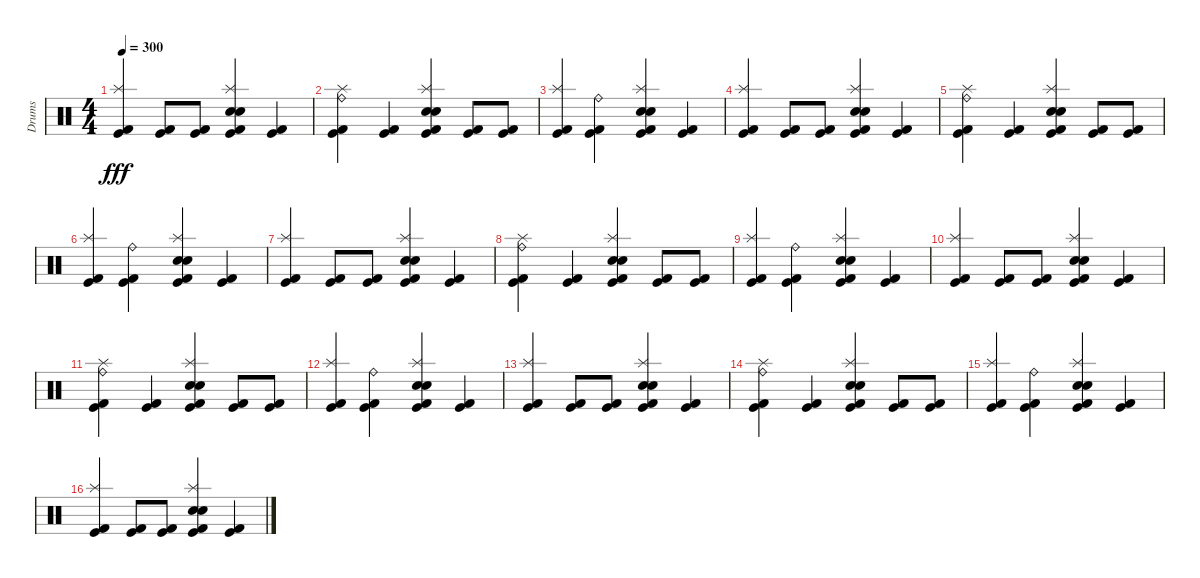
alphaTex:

\track ("Drums" "Drums") {instrument percussion}
\staff {score}
\articulation defaults
\ts (4 4)
\tempo 300
\clef neutral
\ks c
("Kick (hit) 2" "Splash (hit)" "Kick (hit)").4{dy fff} ("Kick (hit) 2" "Kick (hit)").8 ("Kick (hit) 2" "Kick (hit)").8 ("Kick (hit) 2" "Snare (hit) 2" "Electric Snare (hit)" "Splash (hit)" "Kick (hit)").4 ("Kick (hit) 2" "Kick (hit)").4 |
("Kick (hit) 2" "Ride (bell)" "Splash (hit)" "Kick (hit)").4 ("Kick (hit) 2" "Kick (hit)").4 ("Kick (hit) 2" "Electric Snare (hit)" "Snare (hit) 2" "Splash (hit)" "Kick (hit)").4 ("Kick (hit) 2" "Kick (hit)").8 ("Kick (hit) 2" "Kick (hit)").8 |
("Kick (hit) 2" "Splash (hit)" "Kick (hit)").4 ("Kick (hit) 2" "Ride (bell)" "Kick (hit)").4 ("Kick (hit) 2" "Snare (hit) 2" "Electric Snare (hit)" "Splash (hit)" "Kick (hit)").4 ("Kick (hit) 2" "Kick (hit)").4 |
("Kick (hit) 2" "Splash (hit)" "Kick (hit)").4 ("Kick (hit) 2" "Kick (hit)").8 ("Kick (hit) 2" "Kick (hit)").8 ("Kick (hit) 2" "Snare (hit) 2" "Electric Snare (hit)" "Splash (hit)" "Kick (hit)").4 ("Kick (hit) 2" "Kick (hit)").4 |
("Kick (hit) 2" "Ride (bell)" "Splash (hit)" "Kick (hit)").4 ("Kick (hit) 2" "Kick (hit)").4 ("Kick (hit) 2" "Electric Snare (hit)" "Snare (hit) 2" "Splash (hit)" "Kick (hit)").4 ("Kick (hit) 2" "Kick (hit)").8 ("Kick (hit) 2" "Kick (hit)").8 |
("Kick (hit) 2" "Splash (hit)" "Kick (hit)").4 ("Kick (hit) 2" "Ride (bell)" "Kick (hit)").4 ("Kick (hit) 2" "Snare (hit) 2" "Electric Snare (hit)" "Splash (hit)" "Kick (hit)").4 ("Kick (hit) 2" "Kick (hit)").4 |
("Kick (hit) 2" "Splash (hit)" "Kick (hit)").4 ("Kick (hit) 2" "Kick (hit)").8 ("Kick (hit) 2" "Kick (hit)").8 ("Kick (hit) 2" "Snare (hit) 2" "Electric Snare (hit)" "Splash (hit)" "Kick (hit)").4 ("Kick (hit) 2" "Kick (hit)").4 |
("Kick (hit) 2" "Ride (bell)" "Splash (hit)" "Kick (hit)").4 ("Kick (hit) 2" "Kick (hit)").4 ("Kick (hit) 2" "Electric Snare (hit)" "Snare (hit) 2" "Splash (hit)" "Kick (hit)").4 ("Kick (hit) 2" "Kick (hit)").8 ("Kick (hit) 2" "Kick (hit)").8 |
("Kick (hit) 2" "Splash (hit)" "Kick (hit)").4 ("Kick (hit) 2" "Ride (bell)" "Kick (hit)").4 ("Kick (hit) 2" "Snare (hit) 2" "Electric Snare (hit)" "Splash (hit)" "Kick (hit)").4 ("Kick (hit) 2" "Kick (hit)").4 |
("Kick (hit) 2" "Splash (hit)" "Kick (hit)").4 ("Kick (hit) 2" "Kick (hit)").8 ("Kick (hit) 2" "Kick (hit)").8 ("Kick (hit) 2" "Snare (hit) 2" "Electric Snare (hit)" "Splash (hit)" "Kick (hit)").4 ("Kick (hit) 2" "Kick (hit)").4 |
("Kick (hit) 2" "Ride (bell)" "Splash (hit)" "Kick (hit)").4 ("Kick (hit) 2" "Kick (hit)").4 ("Kick (hit) 2" "Electric Snare (hit)" "Snare (hit) 2" "Splash (hit)" "Kick (hit)").4 ("Kick (hit) 2" "Kick (hit)").8 ("Kick (hit) 2" "Kick (hit)").8 |
("Kick (hit) 2" "Splash (hit)" "Kick (hit)").4 ("Kick (hit) 2" "Ride (bell)" "Kick (hit)").4 ("Kick (hit) 2" "Snare (hit) 2" "Electric Snare (hit)" "Splash (hit)" "Kick (hit)").4 ("Kick (hit) 2" "Kick (hit)").4 |
("Kick (hit) 2" "Splash (hit)" "Kick (hit)").4 ("Kick (hit) 2" "Kick (hit)").8 ("Kick (hit) 2" "Kick (hit)").8 ("Kick (hit) 2" "Snare (hit) 2" "Electric Snare (hit)" "Splash (hit)" "Kick (hit)").4 ("Kick (hit) 2" "Kick (hit)").4 |
("Kick (hit) 2" "Ride (bell)" "Splash (hit)" "Kick (hit)").4 ("Kick (hit) 2" "Kick (hit)").4 ("Kick (hit) 2" "Electric Snare (hit)" "Snare (hit) 2" "Splash (hit)" "Kick (hit)").4 ("Kick (hit) 2" "Kick (hit)").8 ("Kick (hit) 2" "Kick (hit)").8 |
("Kick (hit) 2" "Splash (hit)" "Kick (hit)").4 ("Kick (hit) 2" "Ride (bell)" "Kick (hit)").4 ("Kick (hit) 2" "Snare (hit) 2" "Electric Snare (hit)" "Splash (hit)" "Kick (hit)").4 ("Kick (hit) 2" "Kick (hit)").4 |
("Kick (hit) 2" "Splash (hit)" "Kick (hit)").4 ("Kick (hit) 2" "Kick (hit)").8 ("Kick (hit) 2" "Kick (hit)").8 ("Kick (hit) 2" "Snare (hit) 2" "Electric Snare (hit)" "Splash (hit)" "Kick (hit)").4 ("Kick (hit) 2" "Kick (hit)").4
